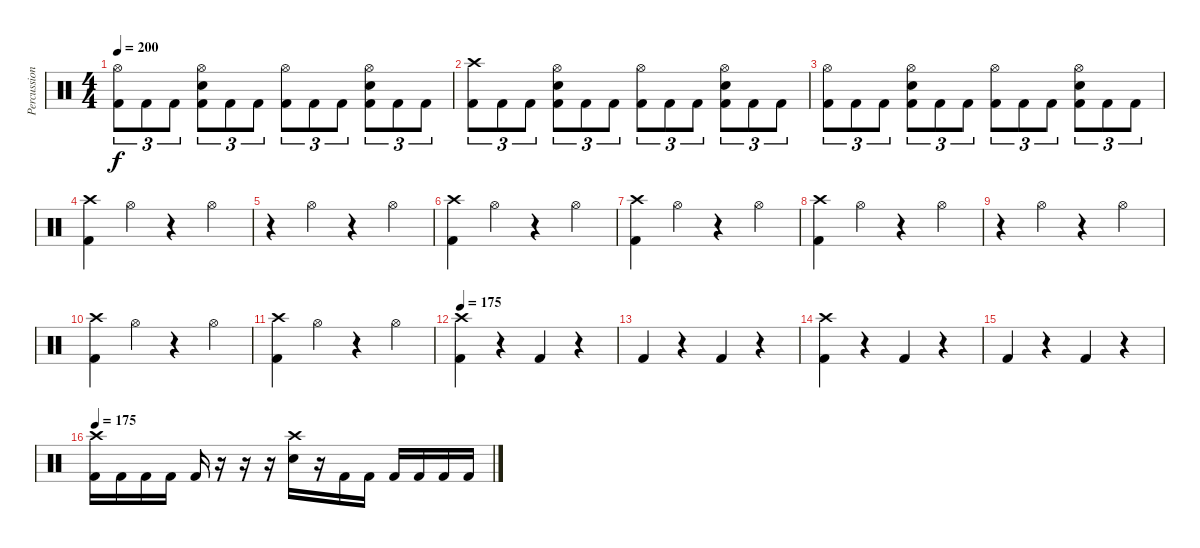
\track ("Percussion" "Percussion") {instrument percussion}
\staff {score}
\articulation defaults
\ts (4 4)
\tempo 200
\clef neutral
\ks c
("Hi-Hat (open)" "Kick (hit) 2").8{tu (3 2) dy f} "Kick (hit) 2".8{tu (3 2)} "Kick (hit) 2".8{tu (3 2)} ("Hi-Hat (open)" "Electric Snare (hit)" "Kick (hit) 2").8{tu (3 2)} "Kick (hit) 2".8{tu (3 2)} "Kick (hit) 2".8{tu (3 2)} ("Hi-Hat (open)" "Kick (hit) 2").8{tu (3 2)} "Kick (hit) 2".8{tu (3 2)} "Kick (hit) 2".8{tu (3 2)} ("Hi-Hat (open)" "Electric Snare (hit)" "Kick (hit) 2").8{tu (3 2)} "Kick (hit) 2".8{tu (3 2)} "Kick (hit) 2".8{tu (3 2)} |
("Crash high (hit)" "Kick (hit) 2").8{tu (3 2)} "Kick (hit) 2".8{tu (3 2)} "Kick (hit) 2".8{tu (3 2)} ("Hi-Hat (open)" "Electric Snare (hit)" "Kick (hit) 2").8{tu (3 2)} "Kick (hit) 2".8{tu (3 2)} "Kick (hit) 2".8{tu (3 2)} ("Hi-Hat (open)" "Kick (hit) 2").8{tu (3 2)} "Kick (hit) 2".8{tu (3 2)} "Kick (hit) 2".8{tu (3 2)} ("Hi-Hat (open)" "Electric Snare (hit)" "Kick (hit) 2").8{tu (3 2)} "Kick (hit) 2".8{tu (3 2)} "Kick (hit) 2".8{tu (3 2)} |
("Hi-Hat (open)" "Kick (hit) 2").8{tu (3 2)} "Kick (hit) 2".8{tu (3 2)} "Kick (hit) 2".8{tu (3 2)} ("Hi-Hat (open)" "Electric Snare (hit)" "Kick (hit) 2").8{tu (3 2)} "Kick (hit) 2".8{tu (3 2)} "Kick (hit) 2".8{tu (3 2)} ("Hi-Hat (open)" "Kick (hit) 2").8{tu (3 2)} "Kick (hit) 2".8{tu (3 2)} "Kick (hit) 2".8{tu (3 2)} ("Hi-Hat (open)" "Electric Snare (hit)" "Kick (hit) 2").8{tu (3 2)} "Kick (hit) 2".8{tu (3 2)} "Kick (hit) 2".8{tu (3 2)} |
("Crash high (hit)" "Kick (hit) 2").4 "Hi-Hat (open)".4 r.4 "Hi-Hat (open)".4 |
r.4 "Hi-Hat (open)".4 r.4 "Hi-Hat (open)".4 |
("Crash high (hit)" "Kick (hit) 2").4 "Hi-Hat (open)".4 r.4 "Hi-Hat (open)".4 |
("Crash high (hit)" "Kick (hit) 2").4 "Hi-Hat (open)".4 r.4 "Hi-Hat (open)".4 |
("Crash high (hit)" "Kick (hit) 2").4 "Hi-Hat (open)".4 r.4 "Hi-Hat (open)".4 |
r.4 "Hi-Hat (open)".4 r.4 "Hi-Hat (open)".4 |
("Crash high (hit)" "Kick (hit) 2").4 "Hi-Hat (open)".4 r.4 "Hi-Hat (open)".4 |
("Crash high (hit)" "Kick (hit) 2").4 "Hi-Hat (open)".4 r.4 "Hi-Hat (open)".4 |
\tempo 175
("Crash high (hit)" "Kick (hit) 2").4 r.4 "Kick (hit) 2".4 r.4 |
"Kick (hit) 2".4 r.4 "Kick (hit) 2".4 r.4 |
("Crash high (hit)" "Kick (hit) 2").4 r.4 "Kick (hit) 2".4 r.4 |
"Kick (hit) 2".4 r.4 "Kick (hit) 2".4 r.4 |
\tempo 175
("Crash high (hit)" "Kick (hit) 2").16 "Kick (hit) 2".16 "Kick (hit) 2".16 "Kick (hit) 2".16 "Kick (hit) 2".16 r.16 r.16 r.16 ("Crash high (hit)" "Electric Snare (hit)").16 r.16 "Kick (hit) 2".16 "Kick (hit) 2".16 "Kick (hit) 2".16 "Kick (hit) 2".16 "Kick (hit) 2".16 "Kick (hit) 2".16
